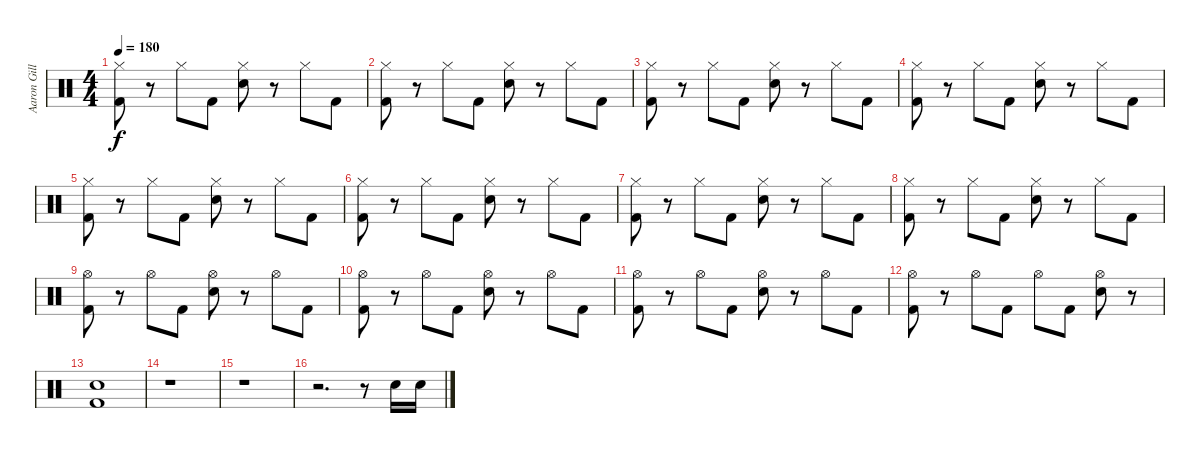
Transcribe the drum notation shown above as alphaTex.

\track ("Aaron Gillespie 1" "Aaron Gill") {instrument percussion}
\staff {score}
\articulation defaults
\ts (4 4)
\tempo 180
\clef neutral
\ks c
("Hi-Hat (closed)" "Kick (hit) 2").8{dy f} r.8 "Hi-Hat (closed)".8 "Kick (hit) 2".8 ("Hi-Hat (closed)" "Snare (hit) 2").8 r.8 "Hi-Hat (closed)".8 "Kick (hit) 2".8 |
("Hi-Hat (closed)" "Kick (hit) 2").8 r.8 "Hi-Hat (closed)".8 "Kick (hit) 2".8 ("Hi-Hat (closed)" "Snare (hit) 2").8 r.8 "Hi-Hat (closed)".8 "Kick (hit) 2".8 |
("Hi-Hat (closed)" "Kick (hit) 2").8 r.8 "Hi-Hat (closed)".8 "Kick (hit) 2".8 ("Hi-Hat (closed)" "Snare (hit) 2").8 r.8 "Hi-Hat (closed)".8 "Kick (hit) 2".8 |
("Hi-Hat (closed)" "Kick (hit) 2").8 r.8 "Hi-Hat (closed)".8 "Kick (hit) 2".8 ("Hi-Hat (closed)" "Snare (hit) 2").8 r.8 "Hi-Hat (closed)".8 "Kick (hit) 2".8 |
("Hi-Hat (closed)" "Kick (hit) 2").8 r.8 "Hi-Hat (closed)".8 "Kick (hit) 2".8 ("Hi-Hat (closed)" "Snare (hit) 2").8 r.8 "Hi-Hat (closed)".8 "Kick (hit) 2".8 |
("Hi-Hat (closed)" "Kick (hit) 2").8 r.8 "Hi-Hat (closed)".8 "Kick (hit) 2".8 ("Hi-Hat (closed)" "Snare (hit) 2").8 r.8 "Hi-Hat (closed)".8 "Kick (hit) 2".8 |
("Hi-Hat (closed)" "Kick (hit) 2").8 r.8 "Hi-Hat (closed)".8 "Kick (hit) 2".8 ("Hi-Hat (closed)" "Snare (hit) 2").8 r.8 "Hi-Hat (closed)".8 "Kick (hit) 2".8 |
("Hi-Hat (closed)" "Kick (hit) 2").8 r.8 "Hi-Hat (closed)".8 "Kick (hit) 2".8 ("Hi-Hat (closed)" "Snare (hit) 2").8 r.8 "Hi-Hat (closed)".8 "Kick (hit) 2".8 |
("Hi-Hat (open)" "Kick (hit) 2").8 r.8 "Hi-Hat (open)".8 "Kick (hit) 2".8 ("Hi-Hat (open)" "Snare (hit) 2").8 r.8 "Hi-Hat (open)".8 "Kick (hit) 2".8 |
("Hi-Hat (open)" "Kick (hit) 2").8 r.8 "Hi-Hat (open)".8 "Kick (hit) 2".8 ("Hi-Hat (open)" "Snare (hit) 2").8 r.8 "Hi-Hat (open)".8 "Kick (hit) 2".8 |
("Hi-Hat (open)" "Kick (hit) 2").8 r.8 "Hi-Hat (open)".8 "Kick (hit) 2".8 ("Hi-Hat (open)" "Snare (hit) 2").8 r.8 "Hi-Hat (open)".8 "Kick (hit) 2".8 |
("Hi-Hat (open)" "Kick (hit) 2").8 r.8 "Hi-Hat (open)".8 "Kick (hit) 2".8 "Hi-Hat (open)".8 "Kick (hit) 2".8 ("Hi-Hat (open)" "Snare (hit) 2").8 r.8 |
("Snare (hit) 2" "Kick (hit) 2").1 |
r.1 |
r.1 |
r.2{d} r.8 "Snare (hit) 2".16 "Snare (hit) 2".16
